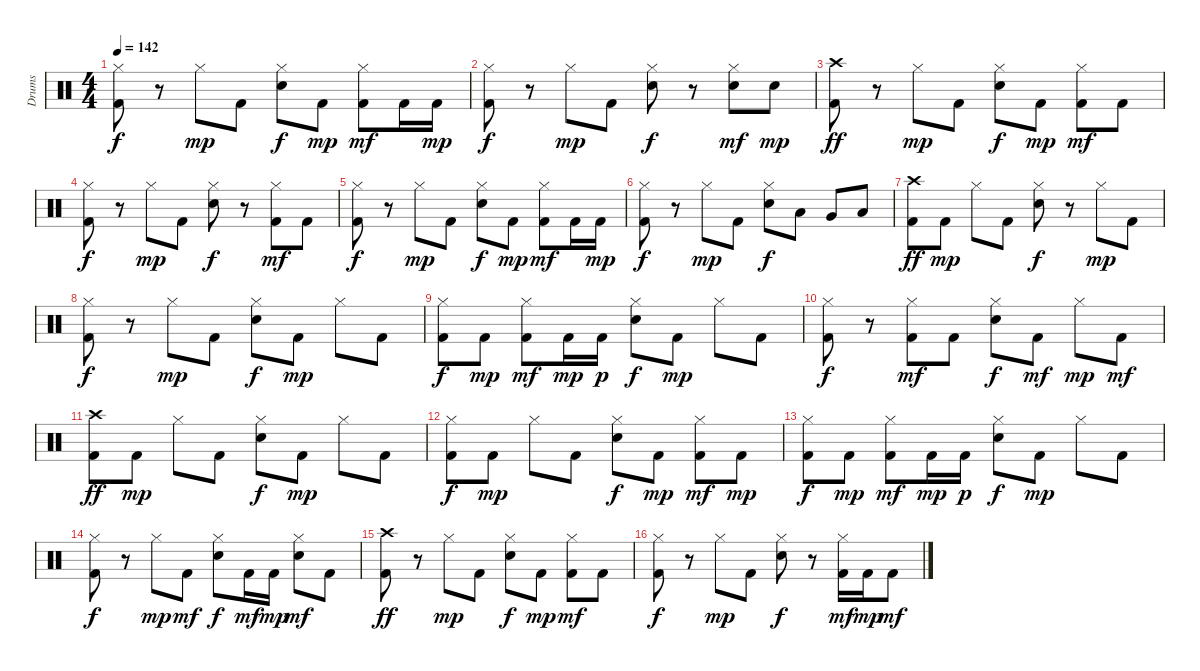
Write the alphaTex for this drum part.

\track ("Drums" "Drums") {instrument percussion}
\staff {score}
\articulation defaults
\ts (4 4)
\tempo 142
\clef neutral
\ks c
("Hi-Hat (closed)" "Kick (hit) 2").8{dy f} r.8 "Hi-Hat (closed)".8{dy mp} "Kick (hit) 2".8 ("Hi-Hat (closed)" "Snare (hit) 2").8{dy f} "Kick (hit) 2".8{dy mp} ("Hi-Hat (closed)" "Kick (hit) 2").8{dy mf} "Kick (hit) 2".16 "Kick (hit) 2".16{dy mp} |
("Hi-Hat (closed)" "Kick (hit) 2").8{dy f} r.8 "Hi-Hat (closed)".8{dy mp} "Kick (hit) 2".8 ("Hi-Hat (closed)" "Snare (hit) 2").8{dy f} r.8 ("Hi-Hat (closed)" "Snare (hit) 2").8{dy mf} "Snare (hit) 2".8{dy mp} |
("Crash high (hit)" "Kick (hit) 2").8{dy ff} r.8 "Hi-Hat (closed)".8{dy mp} "Kick (hit) 2".8 ("Hi-Hat (closed)" "Snare (hit) 2").8{dy f} "Kick (hit) 2".8{dy mp} ("Hi-Hat (closed)" "Kick (hit) 2").8{dy mf} "Kick (hit) 2".8 |
("Hi-Hat (closed)" "Kick (hit) 2").8{dy f} r.8 "Hi-Hat (closed)".8{dy mp} "Kick (hit) 2".8 ("Hi-Hat (closed)" "Snare (hit) 2").8{dy f} r.8 ("Hi-Hat (closed)" "Kick (hit) 2").8{dy mf} "Kick (hit) 2".8 |
("Hi-Hat (closed)" "Kick (hit) 2").8{dy f} r.8 "Hi-Hat (closed)".8{dy mp} "Kick (hit) 2".8 ("Hi-Hat (closed)" "Snare (hit) 2").8{dy f} "Kick (hit) 2".8{dy mp} ("Hi-Hat (closed)" "Kick (hit) 2").8{dy mf} "Kick (hit) 2".16 "Kick (hit) 2".16{dy mp} |
("Hi-Hat (closed)" "Kick (hit) 2").8{dy f} r.8 "Hi-Hat (closed)".8{dy mp} "Kick (hit) 2".8 ("Hi-Hat (closed)" "Snare (hit) 2").8{dy f} "Low Tom (hit)".8 "Very Low Tom (hit)".8 "Low Floor Tom (hit)".8 |
("Crash high (hit)" "Kick (hit) 2").8{dy ff} "Kick (hit) 2".8{dy mp} "Hi-Hat (closed)".8 "Kick (hit) 2".8 ("Hi-Hat (closed)" "Snare (hit) 2").8{dy f} r.8 "Hi-Hat (closed)".8{dy mp} "Kick (hit) 2".8 |
("Hi-Hat (closed)" "Kick (hit) 2").8{dy f} r.8 "Hi-Hat (closed)".8{dy mp} "Kick (hit) 2".8 ("Hi-Hat (closed)" "Snare (hit) 2").8{dy f} "Kick (hit) 2".8{dy mp} "Hi-Hat (closed)".8 "Kick (hit) 2".8 |
("Hi-Hat (closed)" "Kick (hit) 2").8{dy f} "Kick (hit) 2".8{dy mp} ("Hi-Hat (closed)" "Kick (hit) 2").8{dy mf} "Kick (hit) 2".16{dy mp} "Kick (hit) 2".16{dy p} ("Hi-Hat (closed)" "Snare (hit) 2").8{dy f} "Kick (hit) 2".8{dy mp} "Hi-Hat (closed)".8 "Kick (hit) 2".8 |
("Hi-Hat (closed)" "Kick (hit) 2").8{dy f} r.8 ("Hi-Hat (closed)" "Kick (hit) 2").8{dy mf} "Kick (hit) 2".8 ("Hi-Hat (closed)" "Snare (hit) 2").8{dy f} "Kick (hit) 2".8{dy mf} "Hi-Hat (closed)".8{dy mp} "Kick (hit) 2".8{dy mf} |
("Crash high (hit)" "Kick (hit) 2").8{dy ff} "Kick (hit) 2".8{dy mp} "Hi-Hat (closed)".8 "Kick (hit) 2".8 ("Hi-Hat (closed)" "Snare (hit) 2").8{dy f} "Kick (hit) 2".8{dy mp} "Hi-Hat (closed)".8 "Kick (hit) 2".8 |
("Hi-Hat (closed)" "Kick (hit) 2").8{dy f} "Kick (hit) 2".8{dy mp} "Hi-Hat (closed)".8 "Kick (hit) 2".8 ("Hi-Hat (closed)" "Snare (hit) 2").8{dy f} "Kick (hit) 2".8{dy mp} ("Hi-Hat (closed)" "Kick (hit) 2").8{dy mf} "Kick (hit) 2".8{dy mp} |
("Hi-Hat (closed)" "Kick (hit) 2").8{dy f} "Kick (hit) 2".8{dy mp} ("Hi-Hat (closed)" "Kick (hit) 2").8{dy mf} "Kick (hit) 2".16{dy mp} "Kick (hit) 2".16{dy p} ("Hi-Hat (closed)" "Snare (hit) 2").8{dy f} "Kick (hit) 2".8{dy mp} "Hi-Hat (closed)".8 "Kick (hit) 2".8 |
("Hi-Hat (closed)" "Kick (hit) 2").8{dy f} r.8 "Hi-Hat (closed)".8{dy mp} "Kick (hit) 2".8{dy mf} ("Hi-Hat (closed)" "Snare (hit) 2").8{dy f} "Kick (hit) 2".16{dy mf} "Kick (hit) 2".16{dy mp} ("Hi-Hat (closed)" "Snare (hit) 2").8{dy mf} "Kick (hit) 2".8 |
("Crash high (hit)" "Kick (hit) 2").8{dy ff} r.8 "Hi-Hat (closed)".8{dy mp} "Kick (hit) 2".8 ("Hi-Hat (closed)" "Snare (hit) 2").8{dy f} "Kick (hit) 2".8{dy mp} ("Hi-Hat (closed)" "Kick (hit) 2").8{dy mf} "Kick (hit) 2".8 |
("Hi-Hat (closed)" "Kick (hit) 2").8{dy f} r.8 "Hi-Hat (closed)".8{dy mp} "Kick (hit) 2".8 ("Hi-Hat (closed)" "Snare (hit) 2").8{dy f} r.8 ("Hi-Hat (closed)" "Kick (hit) 2").16{dy mf} "Kick (hit) 2".16{dy mp} "Kick (hit) 2".8{dy mf}
